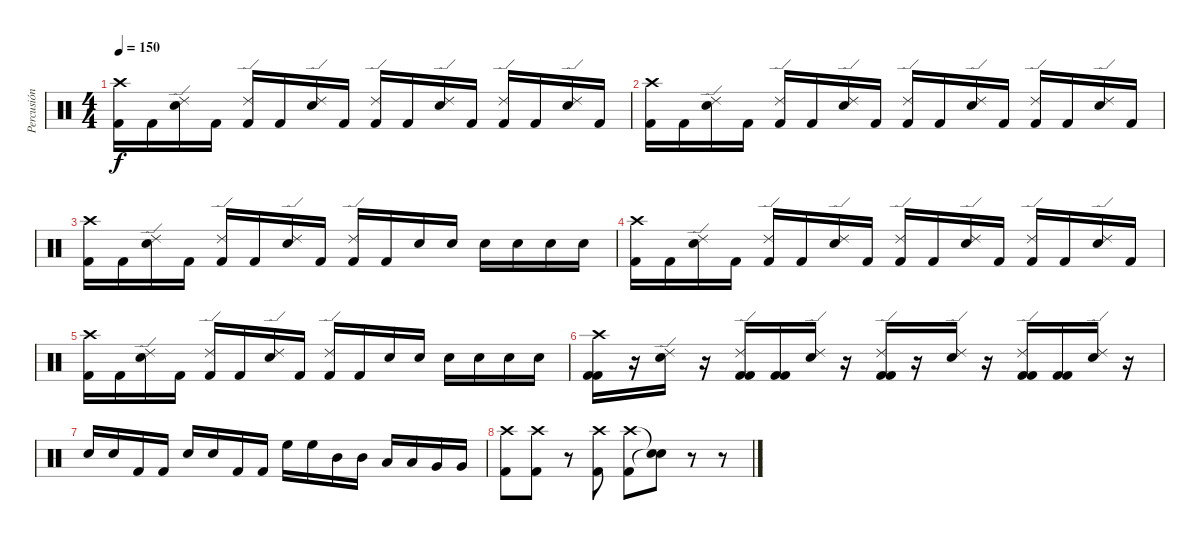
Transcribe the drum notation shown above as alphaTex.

\track ("Percusión" "Percusión") {instrument percussion}
\staff {score}
\articulation defaults
\ts (4 4)
\tempo 150
\clef neutral
\ks c
("Crash high (hit)" "Kick (hit) 2").16{dy f} "Kick (hit) 2".16 ("Ride (edge) 2" "Electric Snare (hit)").16 "Kick (hit) 2".16 ("Ride (edge) 2" "Kick (hit) 2").16 "Kick (hit) 2".16 ("Ride (edge) 2" "Electric Snare (hit)").16 "Kick (hit) 2".16 ("Ride (edge) 2" "Kick (hit) 2").16 "Kick (hit) 2".16 ("Ride (edge) 2" "Electric Snare (hit)").16 "Kick (hit) 2".16 ("Ride (edge) 2" "Kick (hit) 2").16 "Kick (hit) 2".16 ("Ride (edge) 2" "Electric Snare (hit)").16 "Kick (hit) 2".16 |
("Crash high (hit)" "Kick (hit) 2").16 "Kick (hit) 2".16 ("Ride (edge) 2" "Electric Snare (hit)").16 "Kick (hit) 2".16 ("Ride (edge) 2" "Kick (hit) 2").16 "Kick (hit) 2".16 ("Ride (edge) 2" "Electric Snare (hit)").16 "Kick (hit) 2".16 ("Ride (edge) 2" "Kick (hit) 2").16 "Kick (hit) 2".16 ("Ride (edge) 2" "Electric Snare (hit)").16 "Kick (hit) 2".16 ("Ride (edge) 2" "Kick (hit) 2").16 "Kick (hit) 2".16 ("Ride (edge) 2" "Electric Snare (hit)").16 "Kick (hit) 2".16 |
("Crash high (hit)" "Kick (hit) 2").16 "Kick (hit) 2".16 ("Ride (edge) 2" "Electric Snare (hit)").16 "Kick (hit) 2".16 ("Ride (edge) 2" "Kick (hit) 2").16 "Kick (hit) 2".16 ("Ride (edge) 2" "Electric Snare (hit)").16 "Kick (hit) 2".16 ("Ride (edge) 2" "Kick (hit) 2").16 "Kick (hit) 2".16 "Electric Snare (hit)".16 "Electric Snare (hit)".16 "Electric Snare (hit)".16 "Electric Snare (hit)".16 "Electric Snare (hit)".16 "Electric Snare (hit)".16 |
("Crash high (hit)" "Kick (hit) 2").16 "Kick (hit) 2".16 ("Ride (edge) 2" "Electric Snare (hit)").16 "Kick (hit) 2".16 ("Ride (edge) 2" "Kick (hit) 2").16 "Kick (hit) 2".16 ("Ride (edge) 2" "Electric Snare (hit)").16 "Kick (hit) 2".16 ("Ride (edge) 2" "Kick (hit) 2").16 "Kick (hit) 2".16 ("Ride (edge) 2" "Electric Snare (hit)").16 "Kick (hit) 2".16 ("Ride (edge) 2" "Kick (hit) 2").16 "Kick (hit) 2".16 ("Ride (edge) 2" "Electric Snare (hit)").16 "Kick (hit) 2".16 |
("Crash high (hit)" "Kick (hit) 2").16 "Kick (hit) 2".16 ("Ride (edge) 2" "Electric Snare (hit)").16 "Kick (hit) 2".16 ("Ride (edge) 2" "Kick (hit) 2").16 "Kick (hit) 2".16 ("Ride (edge) 2" "Electric Snare (hit)").16 "Kick (hit) 2".16 ("Ride (edge) 2" "Kick (hit) 2").16 "Kick (hit) 2".16 "Electric Snare (hit)".16 "Electric Snare (hit)".16 "Electric Snare (hit)".16 "Electric Snare (hit)".16 "Electric Snare (hit)".16 "Electric Snare (hit)".16 |
("Crash high (hit)" "Kick (hit) 2" "Kick (hit) 2").16 r.16 ("Ride (edge) 2" "Electric Snare (hit)").16 r.16 ("Ride (edge) 2" "Kick (hit) 2" "Kick (hit) 2").16 ("Kick (hit) 2" "Kick (hit) 2").16 ("Ride (edge) 2" "Electric Snare (hit)").16 r.16 ("Ride (edge) 2" "Kick (hit) 2" "Kick (hit) 2").16 r.16 ("Ride (edge) 2" "Electric Snare (hit)").16 r.16 ("Ride (edge) 2" "Kick (hit) 2" "Kick (hit) 2").16 ("Kick (hit) 2" "Kick (hit) 2").16 ("Ride (edge) 2" "Electric Snare (hit)").16 r.16 |
"Electric Snare (hit)".16 "Electric Snare (hit)".16 "Kick (hit) 2".16 "Kick (hit) 2".16 "Electric Snare (hit)".16 "Electric Snare (hit)".16 "Kick (hit) 2".16 "Kick (hit) 2".16 "High Floor Tom (hit)".16 "High Floor Tom (hit)".16 "Mid Tom (hit)".16 "Mid Tom (hit)".16 "Low Tom (hit)".16 "Low Tom (hit)".16 "Very Low Tom (hit)".16 "Very Low Tom (hit)".16 |
("Crash high (hit)" "Kick (hit) 2").8 ("Crash high (hit)" "Kick (hit) 2").8 r.8 ("Crash high (hit)" "Kick (hit) 2").8 ("Crash high (hit)" "Kick (hit) 2").8 ("Snare (hit)"{t} "Snare (hit)"{t}).8 r.8 r.8
